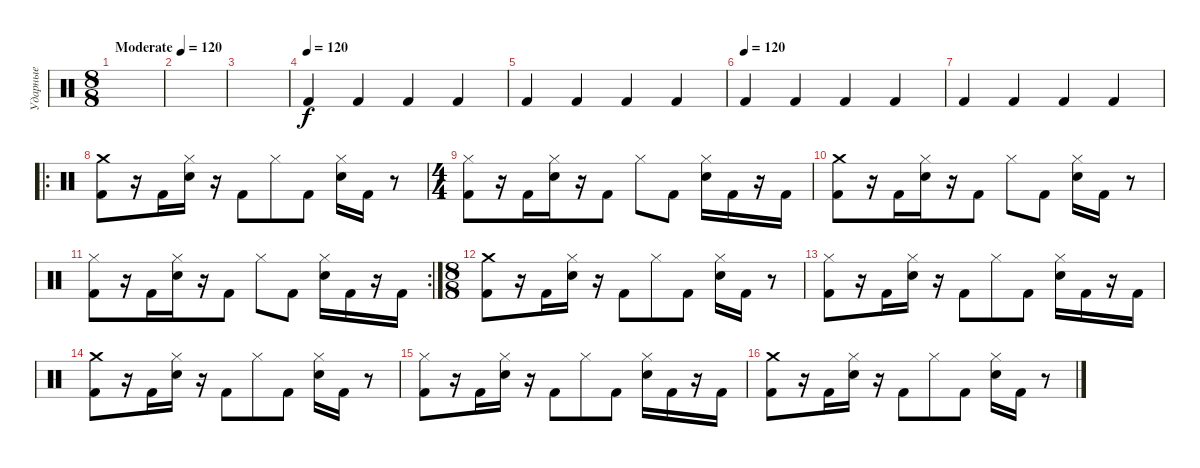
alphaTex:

\track ("Ударные" "Ударные") {instrument percussion}
\staff {score}
\articulation defaults
\ts (8 8)
\tempo (120 "Moderate")
\clef neutral
\ks c
|
|
|
\tempo (120)
"Kick (hit) 2".4 "Kick (hit) 2".4 "Kick (hit) 2".4 "Kick (hit) 2".4 |
"Kick (hit) 2".4 "Kick (hit) 2".4 "Kick (hit) 2".4 "Kick (hit) 2".4 |
\tempo (120)
"Kick (hit) 2".4 "Kick (hit) 2".4 "Kick (hit) 2".4 "Kick (hit) 2".4 |
"Kick (hit) 2".4 "Kick (hit) 2".4 "Kick (hit) 2".4 "Kick (hit) 2".4 |
\ro
("Crash medium (hit)" "Kick (hit) 2").8 r.16 "Kick (hit) 2".16{beam merge} ("Hi-Hat (closed)" "Electric Snare (hit)").16 r.16 "Kick (hit) 2".8 "Hi-Hat (closed)".8 "Kick (hit) 2".8 ("Hi-Hat (closed)" "Electric Snare (hit)").16 "Kick (hit) 2".16 r.8 |
\ts (4 4)
("Hi-Hat (closed)" "Kick (hit) 2").8 r.16 "Kick (hit) 2".16{beam merge} ("Hi-Hat (closed)" "Electric Snare (hit)").16 r.16 "Kick (hit) 2".8 "Hi-Hat (closed)".8 "Kick (hit) 2".8 ("Hi-Hat (closed)" "Electric Snare (hit)").16 "Kick (hit) 2".16 r.16 "Kick (hit) 2".16 |
("Crash medium (hit)" "Kick (hit) 2").8 r.16 "Kick (hit) 2".16{beam merge} ("Hi-Hat (closed)" "Electric Snare (hit)").16 r.16 "Kick (hit) 2".8 "Hi-Hat (closed)".8 "Kick (hit) 2".8 ("Hi-Hat (closed)" "Electric Snare (hit)").16 "Kick (hit) 2".16 r.8 |
\rc 2
("Hi-Hat (closed)" "Kick (hit) 2").8 r.16 "Kick (hit) 2".16{beam merge} ("Hi-Hat (closed)" "Electric Snare (hit)").16 r.16 "Kick (hit) 2".8 "Hi-Hat (closed)".8 "Kick (hit) 2".8 ("Hi-Hat (closed)" "Electric Snare (hit)").16 "Kick (hit) 2".16 r.16 "Kick (hit) 2".16 |
\ts (8 8)
("Crash medium (hit)" "Kick (hit) 2").8 r.16 "Kick (hit) 2".16{beam merge} ("Hi-Hat (closed)" "Electric Snare (hit)").16 r.16 "Kick (hit) 2".8 "Hi-Hat (closed)".8 "Kick (hit) 2".8 ("Hi-Hat (closed)" "Electric Snare (hit)").16 "Kick (hit) 2".16 r.8 |
("Hi-Hat (closed)" "Kick (hit) 2").8 r.16 "Kick (hit) 2".16{beam merge} ("Hi-Hat (closed)" "Electric Snare (hit)").16 r.16 "Kick (hit) 2".8 "Hi-Hat (closed)".8 "Kick (hit) 2".8 ("Hi-Hat (closed)" "Electric Snare (hit)").16 "Kick (hit) 2".16 r.16 "Kick (hit) 2".16 |
("Crash medium (hit)" "Kick (hit) 2").8 r.16 "Kick (hit) 2".16{beam merge} ("Hi-Hat (closed)" "Electric Snare (hit)").16 r.16 "Kick (hit) 2".8 "Hi-Hat (closed)".8 "Kick (hit) 2".8 ("Hi-Hat (closed)" "Electric Snare (hit)").16 "Kick (hit) 2".16 r.8 |
("Hi-Hat (closed)" "Kick (hit) 2").8 r.16 "Kick (hit) 2".16{beam merge} ("Hi-Hat (closed)" "Electric Snare (hit)").16 r.16 "Kick (hit) 2".8 "Hi-Hat (closed)".8 "Kick (hit) 2".8 ("Hi-Hat (closed)" "Electric Snare (hit)").16 "Kick (hit) 2".16 r.16 "Kick (hit) 2".16 |
("Crash medium (hit)" "Kick (hit) 2").8 r.16 "Kick (hit) 2".16{beam merge} ("Hi-Hat (closed)" "Electric Snare (hit)").16 r.16 "Kick (hit) 2".8 "Hi-Hat (closed)".8 "Kick (hit) 2".8 ("Hi-Hat (closed)" "Electric Snare (hit)").16 "Kick (hit) 2".16 r.8
